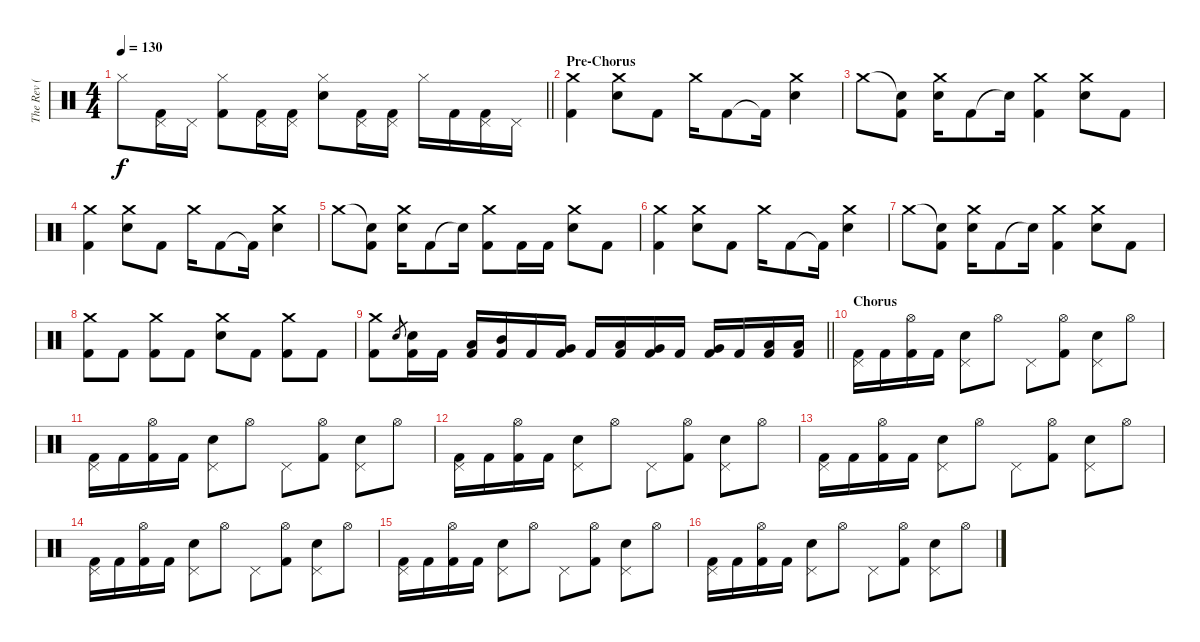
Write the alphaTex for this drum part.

\track ("The Rev ( Drums )" "The Rev ( ") {instrument percussion}
\staff {score}
\articulation defaults
\ts (4 4)
\tempo 130
\clef neutral
\barLineRight lightlight
\ks c "Hi-Hat (closed)".8{dy f}
("Pedal Hi-Hat (hit)" "Kick (hit) 2").16 "Pedal Hi-Hat (hit)".16 ("Hi-Hat (closed)" "Kick (hit) 2").8 ("Pedal Hi-Hat (hit)" "Kick (hit) 2").16 ("Pedal Hi-Hat (hit)" "Kick (hit) 2").16 ("Hi-Hat (closed)" "Snare (hit) 2").8 ("Pedal Hi-Hat (hit)" "Kick (hit) 2").16 ("Pedal Hi-Hat (hit)" "Kick (hit) 2").16 "Hi-Hat (closed)".16 "Kick (hit) 2".16 ("Pedal Hi-Hat (hit)" "Kick (hit) 2").16 "Pedal Hi-Hat (hit)".16 |
\section ("" "Pre-Chorus")
("Crash medium (hit)" "Kick (hit) 2").4 ("Crash medium (hit)" "Snare (hit) 2").8 "Kick (hit) 2".8 "Crash medium (hit)".16 "Kick (hit) 2".8 "Kick (hit) 2"{t}.16 ("Crash medium (hit)" "Snare (hit) 2").4 |
"Crash medium (hit)".8 ("Snare (hit)"{t} "Kick (hit) 2").8 ("Crash medium (hit)" "Snare (hit) 2").16 "Kick (hit) 2".8 "Snare (hit)"{t}.16 ("Crash medium (hit)" "Kick (hit) 2").4 ("Crash medium (hit)" "Snare (hit) 2").8 "Kick (hit) 2".8 |
("Crash medium (hit)" "Kick (hit) 2").4 ("Crash medium (hit)" "Snare (hit) 2").8 "Kick (hit) 2".8 "Crash medium (hit)".16 "Kick (hit) 2".8 "Kick (hit) 2"{t}.16 ("Crash medium (hit)" "Snare (hit) 2").4 |
"Crash medium (hit)".8 ("Snare (hit)"{t} "Kick (hit) 2").8 ("Crash medium (hit)" "Snare (hit) 2").16 "Kick (hit) 2".8 "Snare (hit)"{t}.16 ("Crash medium (hit)" "Kick (hit) 2").8 "Kick (hit) 2".16 "Kick (hit) 2".16 ("Crash medium (hit)" "Snare (hit) 2").8 "Kick (hit) 2".8 |
("Crash medium (hit)" "Kick (hit) 2").4 ("Crash medium (hit)" "Snare (hit) 2").8 "Kick (hit) 2".8 "Crash medium (hit)".16 "Kick (hit) 2".8 "Kick (hit) 2"{t}.16 ("Crash medium (hit)" "Snare (hit) 2").4 |
"Crash medium (hit)".8 ("Snare (hit)"{t} "Kick (hit) 2").8 ("Crash medium (hit)" "Snare (hit) 2").16 "Kick (hit) 2".8 "Snare (hit)"{t}.16 ("Crash medium (hit)" "Kick (hit) 2").4 ("Crash medium (hit)" "Snare (hit) 2").8 "Kick (hit) 2".8 |
("Crash medium (hit)" "Kick (hit) 2").8 "Kick (hit) 2".8 ("Crash medium (hit)" "Kick (hit) 2").8 "Kick (hit) 2".8 ("Crash medium (hit)" "Snare (hit) 2").8 "Kick (hit) 2".8 ("Crash medium (hit)" "Kick (hit) 2").8 "Kick (hit) 2".8 |
\barLineRight lightlight
("Crash medium (hit)" "Kick (hit) 2").8 "Snare (hit) 2".8{gr} ("Snare (hit) 2" "Kick (hit) 2").16 "Kick (hit) 2".16 ("Low Tom (hit)" "Kick (hit) 2").16 ("Mid Tom (hit)" "Kick (hit) 2").16 "Kick (hit) 2".16 ("Very Low Tom (hit)" "Kick (hit) 2").16 "Kick (hit) 2".16 ("Low Floor Tom (hit)" "Kick (hit) 2").16 ("Very Low Tom (hit)" "Kick (hit) 2").16 "Kick (hit) 2".16 ("Very Low Tom (hit)" "Kick (hit) 2").16 "Kick (hit) 2".16 ("Low Floor Tom (hit)" "Kick (hit) 2").16 ("Low Floor Tom (hit)" "Kick (hit) 2").16 |
\section ("" "Chorus")
("Pedal Hi-Hat (hit)" "Kick (hit) 2").16 "Kick (hit) 2".16 ("Hi-Hat (open)" "Kick (hit) 2").16 "Kick (hit) 2".16 ("Pedal Hi-Hat (hit)" "Snare (hit) 2").8 "Hi-Hat (open)".8 "Pedal Hi-Hat (hit)".8 ("Hi-Hat (open)" "Kick (hit) 2").8 ("Pedal Hi-Hat (hit)" "Snare (hit) 2").8 "Hi-Hat (open)".8 |
("Pedal Hi-Hat (hit)" "Kick (hit) 2").16 "Kick (hit) 2".16 ("Hi-Hat (open)" "Kick (hit) 2").16 "Kick (hit) 2".16 ("Pedal Hi-Hat (hit)" "Snare (hit) 2").8 "Hi-Hat (open)".8 "Pedal Hi-Hat (hit)".8 ("Hi-Hat (open)" "Kick (hit) 2").8 ("Pedal Hi-Hat (hit)" "Snare (hit) 2").8 "Hi-Hat (open)".8 |
("Pedal Hi-Hat (hit)" "Kick (hit) 2").16 "Kick (hit) 2".16 ("Hi-Hat (open)" "Kick (hit) 2").16 "Kick (hit) 2".16 ("Pedal Hi-Hat (hit)" "Snare (hit) 2").8 "Hi-Hat (open)".8 "Pedal Hi-Hat (hit)".8 ("Hi-Hat (open)" "Kick (hit) 2").8 ("Pedal Hi-Hat (hit)" "Snare (hit) 2").8 "Hi-Hat (open)".8 |
("Pedal Hi-Hat (hit)" "Kick (hit) 2").16 "Kick (hit) 2".16 ("Hi-Hat (open)" "Kick (hit) 2").16 "Kick (hit) 2".16 ("Pedal Hi-Hat (hit)" "Snare (hit) 2").8 "Hi-Hat (open)".8 "Pedal Hi-Hat (hit)".8 ("Hi-Hat (open)" "Kick (hit) 2").8 ("Pedal Hi-Hat (hit)" "Snare (hit) 2").8 "Hi-Hat (open)".8 |
("Pedal Hi-Hat (hit)" "Kick (hit) 2").16 "Kick (hit) 2".16 ("Hi-Hat (open)" "Kick (hit) 2").16 "Kick (hit) 2".16 ("Pedal Hi-Hat (hit)" "Snare (hit) 2").8 "Hi-Hat (open)".8 "Pedal Hi-Hat (hit)".8 ("Hi-Hat (open)" "Kick (hit) 2").8 ("Pedal Hi-Hat (hit)" "Snare (hit) 2").8 "Hi-Hat (open)".8 |
("Pedal Hi-Hat (hit)" "Kick (hit) 2").16 "Kick (hit) 2".16 ("Hi-Hat (open)" "Kick (hit) 2").16 "Kick (hit) 2".16 ("Pedal Hi-Hat (hit)" "Snare (hit) 2").8 "Hi-Hat (open)".8 "Pedal Hi-Hat (hit)".8 ("Hi-Hat (open)" "Kick (hit) 2").8 ("Pedal Hi-Hat (hit)" "Snare (hit) 2").8 "Hi-Hat (open)".8 |
("Pedal Hi-Hat (hit)" "Kick (hit) 2").16 "Kick (hit) 2".16 ("Hi-Hat (open)" "Kick (hit) 2").16 "Kick (hit) 2".16 ("Pedal Hi-Hat (hit)" "Snare (hit) 2").8 "Hi-Hat (open)".8 "Pedal Hi-Hat (hit)".8 ("Hi-Hat (open)" "Kick (hit) 2").8 ("Pedal Hi-Hat (hit)" "Snare (hit) 2").8 "Hi-Hat (open)".8
